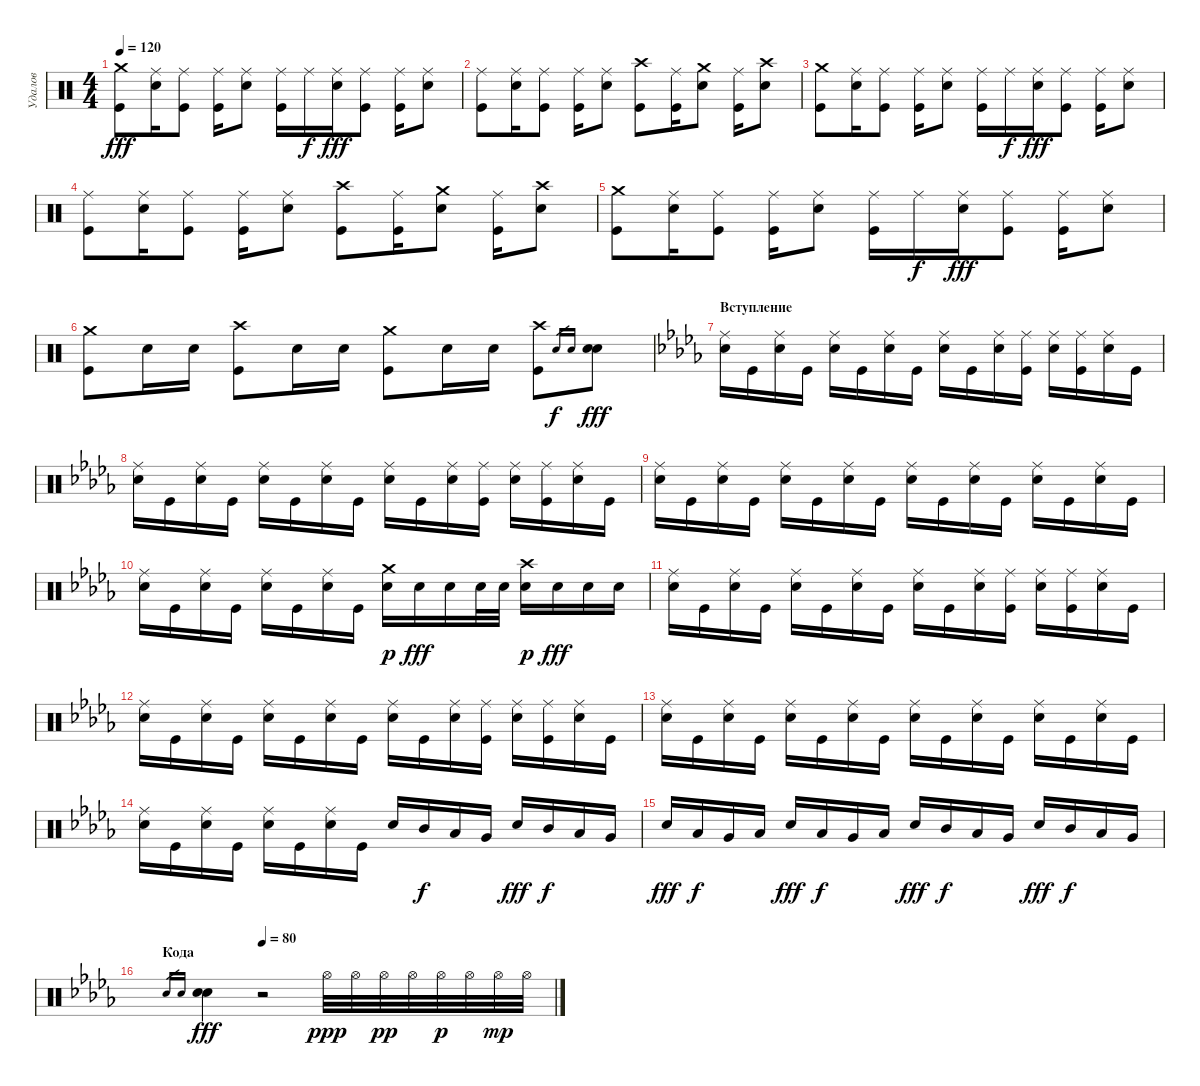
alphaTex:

\track ("Удалов " "Удалов ") {instrument percussion}
\staff {score}
\articulation defaults
\ts (4 4)
\tempo 120
\clef neutral
\ks c
("Crash medium (hit)" "Kick (hit)").8{dy fff} ("Snare (hit) 2" "Ride (middle)").16 ("Kick (hit)" "Ride (middle)").8 ("Kick (hit)" "Ride (middle)").16 ("Snare (hit) 2" "Ride (middle)").8 ("Kick (hit)" "Ride (middle)").16 "Ride (middle)".16{dy f} ("Snare (hit) 2" "Ride (middle)").16{dy fff} ("Kick (hit)" "Ride (middle)").8 ("Kick (hit)" "Ride (middle)").16 ("Snare (hit) 2" "Ride (middle)").8 |
("Kick (hit)" "Ride (middle)").8 ("Snare (hit) 2" "Ride (middle)").16 ("Kick (hit)" "Ride (middle)").8 ("Ride (middle)" "Kick (hit)").16 ("Ride (middle)" "Snare (hit) 2").8 ("Crash high (hit)" "Kick (hit)").8 ("Ride (middle)" "Kick (hit)").16 ("Crash medium (hit)" "Snare (hit) 2").8 ("Ride (middle)" "Kick (hit)").16 ("Crash high (hit)" "Snare (hit) 2").8 |
("Kick (hit)" "Crash medium (hit)").8 ("Snare (hit) 2" "Ride (middle)").16 ("Kick (hit)" "Ride (middle)").8 ("Kick (hit)" "Ride (middle)").16 ("Snare (hit) 2" "Ride (middle)").8 ("Kick (hit)" "Ride (middle)").16 "Ride (middle)".16{dy f} ("Snare (hit) 2" "Ride (middle)").16{dy fff} ("Kick (hit)" "Ride (middle)").8 ("Kick (hit)" "Ride (middle)").16 ("Snare (hit) 2" "Ride (middle)").8 |
("Kick (hit)" "Ride (middle)").8 ("Snare (hit) 2" "Ride (middle)").16 ("Kick (hit)" "Ride (middle)").8 ("Ride (middle)" "Kick (hit)").16 ("Ride (middle)" "Snare (hit) 2").8 ("Crash high (hit)" "Kick (hit)").8 ("Ride (middle)" "Kick (hit)").16 ("Crash medium (hit)" "Snare (hit) 2").8 ("Ride (middle)" "Kick (hit)").16 ("Crash high (hit)" "Snare (hit) 2").8 |
("Kick (hit)" "Crash medium (hit)").8 ("Snare (hit) 2" "Ride (middle)").16 ("Kick (hit)" "Ride (middle)").8 ("Kick (hit)" "Ride (middle)").16 ("Snare (hit) 2" "Ride (middle)").8 ("Kick (hit)" "Ride (middle)").16 "Ride (middle)".16{dy f} ("Snare (hit) 2" "Ride (middle)").16{dy fff} ("Kick (hit)" "Ride (middle)").8 ("Kick (hit)" "Ride (middle)").16 ("Snare (hit) 2" "Ride (middle)").8 |
("Crash medium (hit)" "Kick (hit)").8 "Electric Snare (hit)".16 "Electric Snare (hit)".16 ("Crash high (hit)" "Kick (hit)").8 "Electric Snare (hit)".16 "Electric Snare (hit)".16 ("Crash medium (hit)" "Kick (hit)").8 "Electric Snare (hit)".16 "Electric Snare (hit)".16 ("Kick (hit)" "Crash high (hit)").8 "Electric Snare (hit)".16{gr dy f} "Electric Snare (hit)".16{gr} ("Electric Snare (hit)" "Electric Snare (hit)").8{dy fff} |
\section ("" "Вступление")
\ks db
("Electric Snare (hit)" "Ride (middle)").16 "Kick (hit)".16 ("Electric Snare (hit)" "Ride (middle)").16 "Kick (hit)".16 ("Electric Snare (hit)" "Ride (middle)").16 "Kick (hit)".16 ("Electric Snare (hit)" "Ride (middle)").16 "Kick (hit)".16 ("Electric Snare (hit)" "Ride (middle)").16 "Kick (hit)".16 ("Electric Snare (hit)" "Ride (middle)").16 ("Kick (hit)" "Ride (middle)").16 ("Electric Snare (hit)" "Ride (middle)").16 ("Kick (hit)" "Ride (middle)").16 ("Electric Snare (hit)" "Ride (middle)").16 "Kick (hit)".16 |
("Electric Snare (hit)" "Ride (middle)").16 "Kick (hit)".16 ("Electric Snare (hit)" "Ride (middle)").16 "Kick (hit)".16 ("Electric Snare (hit)" "Ride (middle)").16 "Kick (hit)".16 ("Electric Snare (hit)" "Ride (middle)").16 "Kick (hit)".16 ("Electric Snare (hit)" "Ride (middle)").16 "Kick (hit)".16 ("Electric Snare (hit)" "Ride (middle)").16 ("Kick (hit)" "Ride (middle)").16 ("Electric Snare (hit)" "Ride (middle)").16 ("Kick (hit)" "Ride (middle)").16 ("Electric Snare (hit)" "Ride (middle)").16 "Kick (hit)".16 |
("Electric Snare (hit)" "Ride (middle)").16 "Kick (hit)".16 ("Electric Snare (hit)" "Ride (middle)").16 "Kick (hit)".16 ("Electric Snare (hit)" "Ride (middle)").16 "Kick (hit)".16 ("Electric Snare (hit)" "Ride (middle)").16 "Kick (hit)".16 ("Electric Snare (hit)" "Ride (middle)").16 "Kick (hit)".16 ("Electric Snare (hit)" "Ride (middle)").16 "Kick (hit)".16 ("Electric Snare (hit)" "Ride (middle)").16 "Kick (hit)".16 ("Electric Snare (hit)" "Ride (middle)").16 "Kick (hit)".16 |
("Electric Snare (hit)" "Ride (middle)").16 "Kick (hit)".16 ("Electric Snare (hit)" "Ride (middle)").16 "Kick (hit)".16 ("Electric Snare (hit)" "Ride (middle)").16 "Kick (hit)".16 ("Electric Snare (hit)" "Ride (middle)").16 "Kick (hit)".16 ("Electric Snare (hit)" "Crash medium (hit)").16{dy p} "Electric Snare (hit)".16{dy fff} "Electric Snare (hit)".16 "Electric Snare (hit)".32 "Electric Snare (hit)".32 ("Electric Snare (hit)" "Crash high (hit)").16{dy p} "Electric Snare (hit)".16{dy fff} "Electric Snare (hit)".16 "Electric Snare (hit)".16 |
("Electric Snare (hit)" "Ride (middle)").16 "Kick (hit)".16 ("Electric Snare (hit)" "Ride (middle)").16 "Kick (hit)".16 ("Electric Snare (hit)" "Ride (middle)").16 "Kick (hit)".16 ("Electric Snare (hit)" "Ride (middle)").16 "Kick (hit)".16 ("Electric Snare (hit)" "Ride (middle)").16 "Kick (hit)".16 ("Electric Snare (hit)" "Ride (middle)").16 ("Kick (hit)" "Ride (middle)").16 ("Electric Snare (hit)" "Ride (middle)").16 ("Kick (hit)" "Ride (middle)").16 ("Electric Snare (hit)" "Ride (middle)").16 "Kick (hit)".16 |
("Electric Snare (hit)" "Ride (middle)").16 "Kick (hit)".16 ("Electric Snare (hit)" "Ride (middle)").16 "Kick (hit)".16 ("Electric Snare (hit)" "Ride (middle)").16 "Kick (hit)".16 ("Electric Snare (hit)" "Ride (middle)").16 "Kick (hit)".16 ("Electric Snare (hit)" "Ride (middle)").16 "Kick (hit)".16 ("Electric Snare (hit)" "Ride (middle)").16 ("Kick (hit)" "Ride (middle)").16 ("Electric Snare (hit)" "Ride (middle)").16 ("Kick (hit)" "Ride (middle)").16 ("Electric Snare (hit)" "Ride (middle)").16 "Kick (hit)".16 |
("Electric Snare (hit)" "Ride (middle)").16 "Kick (hit)".16 ("Electric Snare (hit)" "Ride (middle)").16 "Kick (hit)".16 ("Electric Snare (hit)" "Ride (middle)").16 "Kick (hit)".16 ("Electric Snare (hit)" "Ride (middle)").16 "Kick (hit)".16 ("Electric Snare (hit)" "Ride (middle)").16 "Kick (hit)".16 ("Electric Snare (hit)" "Ride (middle)").16 "Kick (hit)".16 ("Electric Snare (hit)" "Ride (middle)").16 "Kick (hit)".16 ("Electric Snare (hit)" "Ride (middle)").16 "Kick (hit)".16 |
("Electric Snare (hit)" "Ride (middle)").16 "Kick (hit)".16 ("Electric Snare (hit)" "Ride (middle)").16 "Kick (hit)".16 ("Electric Snare (hit)" "Ride (middle)").16 "Kick (hit)".16 ("Electric Snare (hit)" "Ride (middle)").16 "Kick (hit)".16 "Electric Snare (hit)".16 "Mid Tom (hit)".16{dy f} "Low Tom (hit)".16 "Very Low Tom (hit)".16 "Electric Snare (hit)".16{dy fff} "Mid Tom (hit)".16{dy f} "Low Tom (hit)".16 "Very Low Tom (hit)".16 |
"Electric Snare (hit)".16{dy fff} "Low Tom (hit)".16{dy f} "Very Low Tom (hit)".16 "Low Floor Tom (hit)".16 "Electric Snare (hit)".16{dy fff} "Low Tom (hit)".16{dy f} "Very Low Tom (hit)".16 "Low Floor Tom (hit)".16 "Electric Snare (hit)".16{dy fff} "Mid Tom (hit)".16{dy f} "Low Tom (hit)".16 "Very Low Tom (hit)".16 "Electric Snare (hit)".16{dy fff} "Mid Tom (hit)".16{dy f} "Low Tom (hit)".16 "Very Low Tom (hit)".16 |
\section ("" "Кода")
\tempo (80 0.25)
"Electric Snare (hit)".16{gr} "Electric Snare (hit)".16{gr} ("Electric Snare (hit)" "Electric Snare (hit)").4{dy fff} r.2 "Hi-Hat (open)".32{dy ppp volume 0} "Hi-Hat (open)".32 "Hi-Hat (open)".32{dy pp} "Hi-Hat (open)".32 "Hi-Hat (open)".32{dy p} "Hi-Hat (open)".32 "Hi-Hat (open)".32{dy mp} "Hi-Hat (open)".32
